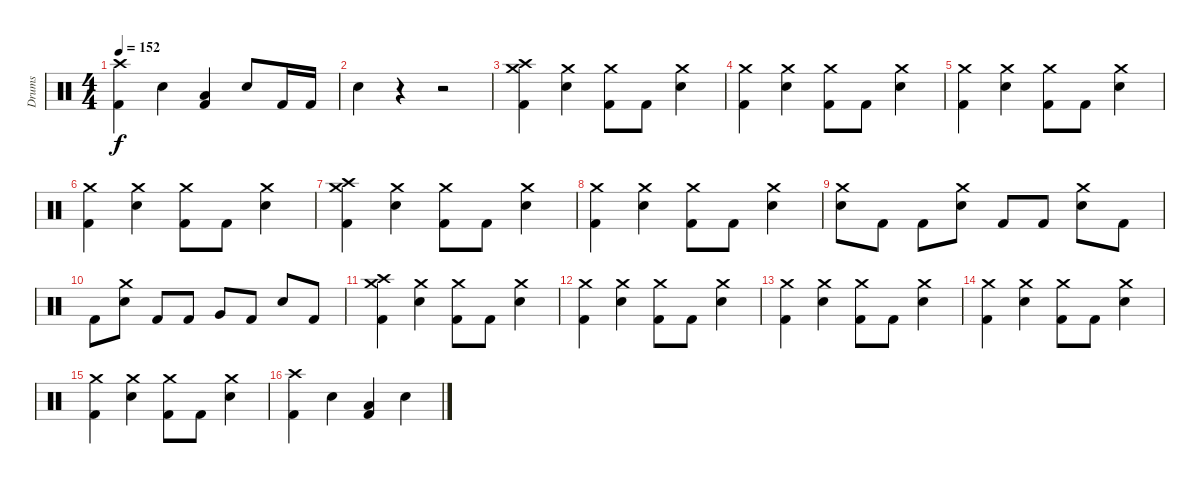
\track ("Drums" "Drums") {instrument percussion}
\staff {score}
\articulation defaults
\ts (4 4)
\tempo 152
\clef neutral
\ks c
("Crash high (hit)" "Kick (hit) 2").4{dy f} "Snare (hit) 2".4 ("Low Floor Tom (hit)" "Kick (hit) 2").4 "Snare (hit) 2".8 "Kick (hit) 2".16 "Kick (hit) 2".16 |
"Snare (hit) 2".4 r.4 r.2 |
("Crash high (hit)" "Crash medium (hit)" "Kick (hit) 2").4 ("Crash medium (hit)" "Snare (hit) 2").4 ("Crash medium (hit)" "Kick (hit) 2").8 "Kick (hit) 2".8 ("Crash medium (hit)" "Snare (hit) 2").4 |
("Crash medium (hit)" "Kick (hit) 2").4 ("Crash medium (hit)" "Snare (hit) 2").4 ("Crash medium (hit)" "Kick (hit) 2").8 "Kick (hit) 2".8 ("Crash medium (hit)" "Snare (hit) 2").4 |
("Crash medium (hit)" "Kick (hit) 2").4 ("Crash medium (hit)" "Snare (hit) 2").4 ("Crash medium (hit)" "Kick (hit) 2").8 "Kick (hit) 2".8 ("Crash medium (hit)" "Snare (hit) 2").4 |
("Crash medium (hit)" "Kick (hit) 2").4 ("Crash medium (hit)" "Snare (hit) 2").4 ("Crash medium (hit)" "Kick (hit) 2").8 "Kick (hit) 2".8 ("Crash medium (hit)" "Snare (hit) 2").4 |
("Crash high (hit)" "Crash medium (hit)" "Kick (hit) 2").4 ("Crash medium (hit)" "Snare (hit) 2").4 ("Crash medium (hit)" "Kick (hit) 2").8 "Kick (hit) 2".8 ("Crash medium (hit)" "Snare (hit) 2").4 |
("Crash medium (hit)" "Kick (hit) 2").4 ("Crash medium (hit)" "Snare (hit) 2").4 ("Crash medium (hit)" "Kick (hit) 2").8 "Kick (hit) 2".8 ("Crash medium (hit)" "Snare (hit) 2").4 |
("Crash medium (hit)" "Snare (hit) 2").8 "Kick (hit) 2".8 "Kick (hit) 2".8 ("Crash medium (hit)" "Snare (hit) 2").8 "Kick (hit) 2".8 "Kick (hit) 2".8 ("Crash medium (hit)" "Snare (hit) 2").8 "Kick (hit) 2".8 |
"Kick (hit) 2".8 ("Crash medium (hit)" "Snare (hit) 2").8 "Kick (hit) 2".8 "Kick (hit) 2".8 "Very Low Tom (hit)".8 "Kick (hit) 2".8 "Snare (hit) 2".8 "Kick (hit) 2".8 |
("Crash high (hit)" "Crash medium (hit)" "Kick (hit) 2").4 ("Crash medium (hit)" "Snare (hit) 2").4 ("Crash medium (hit)" "Kick (hit) 2").8 "Kick (hit) 2".8 ("Crash medium (hit)" "Snare (hit) 2").4 |
("Crash medium (hit)" "Kick (hit) 2").4 ("Crash medium (hit)" "Snare (hit) 2").4 ("Crash medium (hit)" "Kick (hit) 2").8 "Kick (hit) 2".8 ("Crash medium (hit)" "Snare (hit) 2").4 |
("Crash medium (hit)" "Kick (hit) 2").4 ("Crash medium (hit)" "Snare (hit) 2").4 ("Crash medium (hit)" "Kick (hit) 2").8 "Kick (hit) 2".8 ("Crash medium (hit)" "Snare (hit) 2").4 |
("Crash medium (hit)" "Kick (hit) 2").4 ("Crash medium (hit)" "Snare (hit) 2").4 ("Crash medium (hit)" "Kick (hit) 2").8 "Kick (hit) 2".8 ("Crash medium (hit)" "Snare (hit) 2").4 |
("Crash medium (hit)" "Kick (hit) 2").4 ("Crash medium (hit)" "Snare (hit) 2").4 ("Crash medium (hit)" "Kick (hit) 2").8 "Kick (hit) 2".8 ("Crash medium (hit)" "Snare (hit) 2").4 |
("Crash high (hit)" "Kick (hit) 2").4 "Snare (hit) 2".4 ("Low Floor Tom (hit)" "Kick (hit) 2").4 "Snare (hit) 2".4
